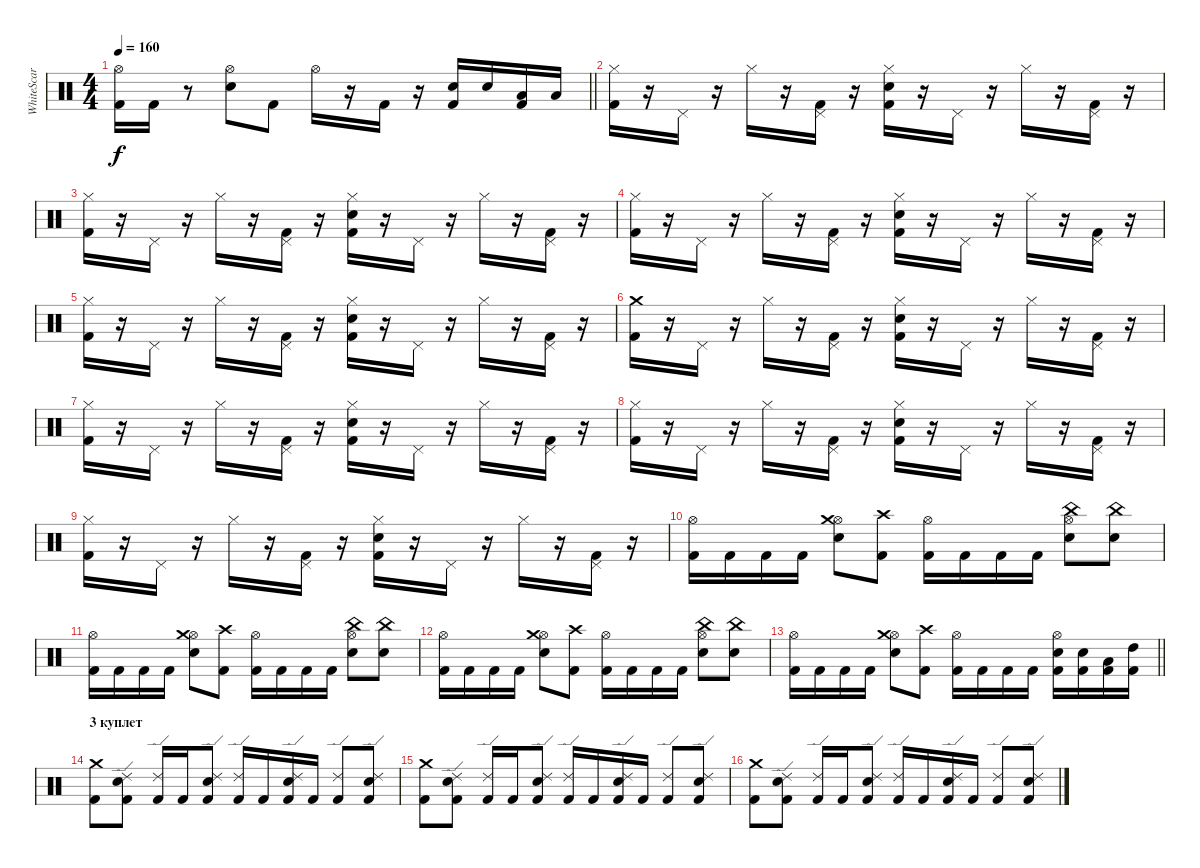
\track ("WhiteScar" "WhiteScar") {instrument percussion}
\staff {score}
\articulation defaults
\ts (4 4)
\tempo 160
\clef neutral
\barLineRight lightlight
\ks c
("Hi-Hat (open)" "Kick (hit) 2").16{dy f} "Kick (hit) 2".16 r.8 ("Hi-Hat (open)" "Snare (hit) 2").8 "Kick (hit) 2".8 "Hi-Hat (open)".16 r.16 "Kick (hit) 2".16 r.16 ("Snare (hit) 2" "Kick (hit) 2").16 "Snare (hit) 2".16 ("Low Tom (hit)" "Kick (hit) 2").16 "Low Tom (hit)".16 |
("Hi-Hat (closed)" "Kick (hit) 2").16 r.16 "Pedal Hi-Hat (hit)".16 r.16 "Hi-Hat (closed)".16 r.16 ("Pedal Hi-Hat (hit)" "Kick (hit) 2").16 r.16 ("Hi-Hat (closed)" "Snare (hit) 2" "Kick (hit) 2").16 r.16 "Pedal Hi-Hat (hit)".16 r.16 "Hi-Hat (closed)".16 r.16 ("Pedal Hi-Hat (hit)" "Kick (hit) 2").16 r.16 |
("Hi-Hat (closed)" "Kick (hit) 2").16 r.16 "Pedal Hi-Hat (hit)".16 r.16 "Hi-Hat (closed)".16 r.16 ("Pedal Hi-Hat (hit)" "Kick (hit) 2").16 r.16 ("Hi-Hat (closed)" "Snare (hit) 2" "Kick (hit) 2").16 r.16 "Pedal Hi-Hat (hit)".16 r.16 "Hi-Hat (closed)".16 r.16 ("Pedal Hi-Hat (hit)" "Kick (hit) 2").16 r.16 |
("Hi-Hat (closed)" "Kick (hit) 2").16 r.16 "Pedal Hi-Hat (hit)".16 r.16 "Hi-Hat (closed)".16 r.16 ("Pedal Hi-Hat (hit)" "Kick (hit) 2").16 r.16 ("Hi-Hat (closed)" "Snare (hit) 2" "Kick (hit) 2").16 r.16 "Pedal Hi-Hat (hit)".16 r.16 "Hi-Hat (closed)".16 r.16 ("Pedal Hi-Hat (hit)" "Kick (hit) 2").16 r.16 |
("Hi-Hat (closed)" "Kick (hit) 2").16 r.16 "Pedal Hi-Hat (hit)".16 r.16 "Hi-Hat (closed)".16 r.16 ("Pedal Hi-Hat (hit)" "Kick (hit) 2").16 r.16 ("Hi-Hat (closed)" "Snare (hit) 2" "Kick (hit) 2").16 r.16 "Pedal Hi-Hat (hit)".16 r.16 "Hi-Hat (closed)".16 r.16 ("Pedal Hi-Hat (hit)" "Kick (hit) 2").16 r.16 |
("Crash medium (hit)" "Kick (hit) 2").16 r.16 "Pedal Hi-Hat (hit)".16 r.16 "Hi-Hat (closed)".16 r.16 ("Pedal Hi-Hat (hit)" "Kick (hit) 2").16 r.16 ("Hi-Hat (closed)" "Snare (hit) 2" "Kick (hit) 2").16 r.16 "Pedal Hi-Hat (hit)".16 r.16 "Hi-Hat (closed)".16 r.16 ("Pedal Hi-Hat (hit)" "Kick (hit) 2").16 r.16 |
("Hi-Hat (closed)" "Kick (hit) 2").16 r.16 "Pedal Hi-Hat (hit)".16 r.16 "Hi-Hat (closed)".16 r.16 ("Pedal Hi-Hat (hit)" "Kick (hit) 2").16 r.16 ("Hi-Hat (closed)" "Snare (hit) 2" "Kick (hit) 2").16 r.16 "Pedal Hi-Hat (hit)".16 r.16 "Hi-Hat (closed)".16 r.16 ("Pedal Hi-Hat (hit)" "Kick (hit) 2").16 r.16 |
("Hi-Hat (closed)" "Kick (hit) 2").16 r.16 "Pedal Hi-Hat (hit)".16 r.16 "Hi-Hat (closed)".16 r.16 ("Pedal Hi-Hat (hit)" "Kick (hit) 2").16 r.16 ("Hi-Hat (closed)" "Snare (hit) 2" "Kick (hit) 2").16 r.16 "Pedal Hi-Hat (hit)".16 r.16 "Hi-Hat (closed)".16 r.16 ("Pedal Hi-Hat (hit)" "Kick (hit) 2").16 r.16 |
("Hi-Hat (closed)" "Kick (hit) 2").16 r.16 "Pedal Hi-Hat (hit)".16 r.16 "Hi-Hat (closed)".16 r.16 ("Pedal Hi-Hat (hit)" "Kick (hit) 2").16 r.16 ("Hi-Hat (closed)" "Snare (hit) 2" "Kick (hit) 2").16 r.16 "Pedal Hi-Hat (hit)".16 r.16 "Hi-Hat (closed)".16 r.16 ("Pedal Hi-Hat (hit)" "Kick (hit) 2").16 r.16 |
("Hi-Hat (open)" "Kick (hit) 2").16 "Kick (hit) 2".16 "Kick (hit) 2".16 "Kick (hit) 2".16 ("Hi-Hat (open)" "Crash medium (hit)" "Snare (hit) 2").8 ("Crash high (hit)" "Kick (hit) 2").8 ("Hi-Hat (open)" "Kick (hit) 2").16 "Kick (hit) 2".16 "Kick (hit) 2".16 "Kick (hit) 2".16 ("Hi-Hat (open)" "China (hit)" "Snare (hit) 2").8 ("China (hit)" "Snare (hit) 2").8 |
("Hi-Hat (open)" "Kick (hit) 2").16 "Kick (hit) 2".16 "Kick (hit) 2".16 "Kick (hit) 2".16 ("Hi-Hat (open)" "Crash medium (hit)" "Snare (hit) 2").8 ("Crash high (hit)" "Kick (hit) 2").8 ("Hi-Hat (open)" "Kick (hit) 2").16 "Kick (hit) 2".16 "Kick (hit) 2".16 "Kick (hit) 2".16 ("Hi-Hat (open)" "China (hit)" "Snare (hit) 2").8 ("China (hit)" "Snare (hit) 2").8 |
("Hi-Hat (open)" "Kick (hit) 2").16 "Kick (hit) 2".16 "Kick (hit) 2".16 "Kick (hit) 2".16 ("Hi-Hat (open)" "Crash medium (hit)" "Snare (hit) 2").8 ("Crash high (hit)" "Kick (hit) 2").8 ("Hi-Hat (open)" "Kick (hit) 2").16 "Kick (hit) 2".16 "Kick (hit) 2".16 "Kick (hit) 2".16 ("Hi-Hat (open)" "China (hit)" "Snare (hit) 2").8 ("China (hit)" "Snare (hit) 2").8 |
\barLineRight lightlight
("Hi-Hat (open)" "Kick (hit) 2").16 "Kick (hit) 2".16 "Kick (hit) 2".16 "Kick (hit) 2".16 ("Hi-Hat (open)" "Crash medium (hit)" "Snare (hit) 2").8 ("Crash high (hit)" "Kick (hit) 2").8 ("Hi-Hat (open)" "Kick (hit) 2").16 "Kick (hit) 2".16 "Kick (hit) 2".16 "Kick (hit) 2".16 ("Hi-Hat (open)" "Snare (hit) 2" "Kick (hit) 2").16 ("Snare (hit) 2" "Kick (hit) 2").16 ("Low Tom (hit)" "Kick (hit) 2").16 ("High Tom (hit)" "Kick (hit) 2").16 |
\section ("" "3 куплет")
("Crash medium (hit)" "Kick (hit) 2").8 ("Snare (hit) 2" "Ride (edge) 2" "Kick (hit) 2").8 ("Ride (edge) 2" "Kick (hit) 2").16 "Kick (hit) 2".16 ("Snare (hit) 2" "Ride (edge) 2" "Kick (hit) 2").8 ("Ride (edge) 2" "Kick (hit) 2").16 "Kick (hit) 2".16 ("Snare (hit) 2" "Ride (edge) 2" "Kick (hit) 2").16 "Kick (hit) 2".16 ("Ride (edge) 2" "Kick (hit) 2").8 ("Snare (hit) 2" "Ride (edge) 2" "Kick (hit) 2").8 |
("Crash medium (hit)" "Kick (hit) 2").8 ("Snare (hit) 2" "Ride (edge) 2" "Kick (hit) 2").8 ("Ride (edge) 2" "Kick (hit) 2").16 "Kick (hit) 2".16 ("Snare (hit) 2" "Ride (edge) 2" "Kick (hit) 2").8 ("Ride (edge) 2" "Kick (hit) 2").16 "Kick (hit) 2".16 ("Snare (hit) 2" "Ride (edge) 2" "Kick (hit) 2").16 "Kick (hit) 2".16 ("Ride (edge) 2" "Kick (hit) 2").8 ("Snare (hit) 2" "Ride (edge) 2" "Kick (hit) 2").8 |
("Crash medium (hit)" "Kick (hit) 2").8 ("Snare (hit) 2" "Ride (edge) 2" "Kick (hit) 2").8 ("Ride (edge) 2" "Kick (hit) 2").16 "Kick (hit) 2".16 ("Snare (hit) 2" "Ride (edge) 2" "Kick (hit) 2").8 ("Ride (edge) 2" "Kick (hit) 2").16 "Kick (hit) 2".16 ("Snare (hit) 2" "Ride (edge) 2" "Kick (hit) 2").16 "Kick (hit) 2".16 ("Ride (edge) 2" "Kick (hit) 2").8 ("Snare (hit) 2" "Ride (edge) 2" "Kick (hit) 2").8
